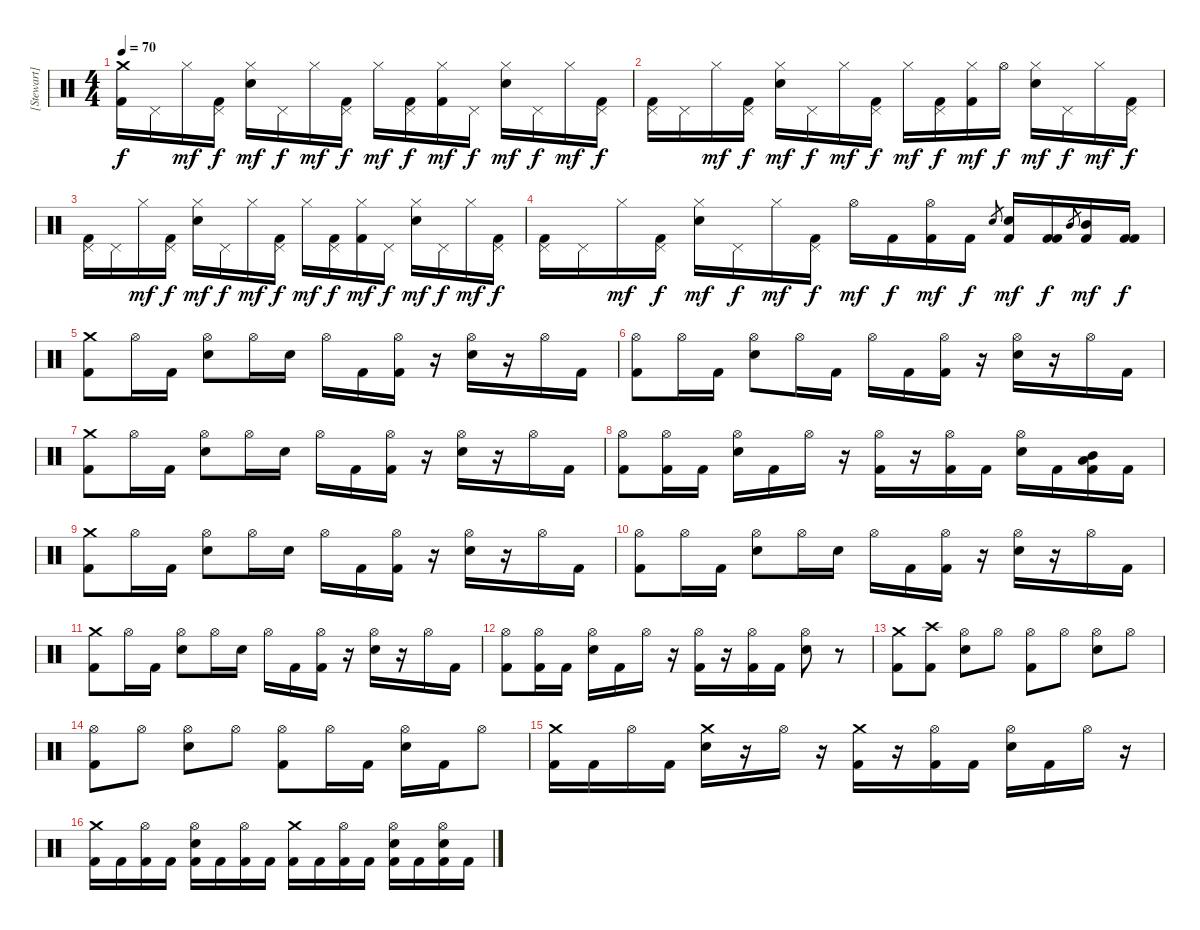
\track ("[Stewart]" "[Stewart]") {instrument percussion}
\staff {score}
\articulation defaults
\ts (4 4)
\tempo 70
\clef neutral
\ks c
("Kick (hit) 2" "Crash medium (hit)").16{dy f} "Pedal Hi-Hat (hit)".16 "Hi-Hat (closed)".16{dy mf} ("Kick (hit) 2" "Pedal Hi-Hat (hit)").16{dy f} ("Electric Snare (hit)" "Hi-Hat (closed)").16{dy mf} "Pedal Hi-Hat (hit)".16{dy f} "Hi-Hat (closed)".16{dy mf} ("Kick (hit) 2" "Pedal Hi-Hat (hit)").16{dy f} "Hi-Hat (closed)".16{dy mf} ("Kick (hit) 2" "Pedal Hi-Hat (hit)").16{dy f} ("Kick (hit) 2" "Hi-Hat (closed)").16{dy mf} "Pedal Hi-Hat (hit)".16{dy f} ("Electric Snare (hit)" "Hi-Hat (closed)").16{dy mf} "Pedal Hi-Hat (hit)".16{dy f} "Hi-Hat (closed)".16{dy mf} ("Kick (hit) 2" "Pedal Hi-Hat (hit)").16{dy f} |
("Kick (hit) 2" "Pedal Hi-Hat (hit)").16 "Pedal Hi-Hat (hit)".16 "Hi-Hat (closed)".16{dy mf} ("Kick (hit) 2" "Pedal Hi-Hat (hit)").16{dy f} ("Electric Snare (hit)" "Hi-Hat (closed)").16{dy mf} "Pedal Hi-Hat (hit)".16{dy f} "Hi-Hat (closed)".16{dy mf} ("Kick (hit) 2" "Pedal Hi-Hat (hit)").16{dy f} "Hi-Hat (closed)".16{dy mf} ("Kick (hit) 2" "Pedal Hi-Hat (hit)").16{dy f} ("Kick (hit) 2" "Hi-Hat (closed)").16{dy mf} "Hi-Hat (open)".16{dy f} ("Electric Snare (hit)" "Hi-Hat (closed)").16{dy mf} "Pedal Hi-Hat (hit)".16{dy f} "Hi-Hat (closed)".16{dy mf} ("Kick (hit) 2" "Pedal Hi-Hat (hit)").16{dy f} |
("Kick (hit) 2" "Pedal Hi-Hat (hit)").16 "Pedal Hi-Hat (hit)".16 "Hi-Hat (closed)".16{dy mf} ("Kick (hit) 2" "Pedal Hi-Hat (hit)").16{dy f} ("Electric Snare (hit)" "Hi-Hat (closed)").16{dy mf} "Pedal Hi-Hat (hit)".16{dy f} "Hi-Hat (closed)".16{dy mf} ("Kick (hit) 2" "Pedal Hi-Hat (hit)").16{dy f} "Hi-Hat (closed)".16{dy mf} ("Kick (hit) 2" "Pedal Hi-Hat (hit)").16{dy f} ("Kick (hit) 2" "Hi-Hat (closed)").16{dy mf} "Pedal Hi-Hat (hit)".16{dy f} ("Electric Snare (hit)" "Hi-Hat (closed)").16{dy mf} "Pedal Hi-Hat (hit)".16{dy f} "Hi-Hat (closed)".16{dy mf} ("Kick (hit) 2" "Pedal Hi-Hat (hit)").16{dy f} |
("Kick (hit) 2" "Pedal Hi-Hat (hit)").16 "Pedal Hi-Hat (hit)".16 "Hi-Hat (closed)".16{dy mf} ("Kick (hit) 2" "Pedal Hi-Hat (hit)").16{dy f} ("Electric Snare (hit)" "Hi-Hat (closed)").16{dy mf} "Pedal Hi-Hat (hit)".16{dy f} "Hi-Hat (closed)".16{dy mf} ("Kick (hit) 2" "Pedal Hi-Hat (hit)").16{dy f} "Hi-Hat (open)".16{dy mf} "Kick (hit) 2".16{dy f} ("Kick (hit) 2" "Hi-Hat (open)").16{dy mf} "Kick (hit) 2".16{dy f} "Electric Snare (hit)".8{gr} ("Electric Snare (hit)" "Kick (hit) 2").16{dy mf} ("Kick (hit) 2" "Kick (hit) 2").16{dy f} "Mid Tom (hit)".8{gr} ("Mid Tom (hit)" "Kick (hit) 2").16{dy mf} ("Kick (hit) 2" "Kick (hit) 2").16{dy f} |
("Kick (hit) 2" "Crash medium (hit)").8 "Hi-Hat (open)".16 "Kick (hit) 2".16 ("Electric Snare (hit)" "Hi-Hat (open)").8 "Hi-Hat (open)".16 "Electric Snare (hit)".16 "Hi-Hat (open)".16 "Kick (hit) 2".16 ("Kick (hit) 2" "Hi-Hat (open)").16 r.16 ("Electric Snare (hit)" "Hi-Hat (open)").16 r.16 "Hi-Hat (open)".16 "Kick (hit) 2".16 |
("Kick (hit) 2" "Hi-Hat (open)").8 "Hi-Hat (open)".16 "Kick (hit) 2".16 ("Electric Snare (hit)" "Hi-Hat (open)").8 "Hi-Hat (open)".16 "Kick (hit) 2".16 "Hi-Hat (open)".16 "Kick (hit) 2".16 ("Kick (hit) 2" "Hi-Hat (open)").16 r.16 ("Electric Snare (hit)" "Hi-Hat (open)").16 r.16 "Hi-Hat (open)".16 "Kick (hit) 2".16 |
("Kick (hit) 2" "Crash medium (hit)").8 "Hi-Hat (open)".16 "Kick (hit) 2".16 ("Electric Snare (hit)" "Hi-Hat (open)").8 "Hi-Hat (open)".16 "Electric Snare (hit)".16 "Hi-Hat (open)".16 "Kick (hit) 2".16 ("Kick (hit) 2" "Hi-Hat (open)").16 r.16 ("Electric Snare (hit)" "Hi-Hat (open)").16 r.16 "Hi-Hat (open)".16 "Kick (hit) 2".16 |
("Kick (hit) 2" "Hi-Hat (open)").8 ("Kick (hit) 2" "Hi-Hat (open)").16 "Kick (hit) 2".16 ("Electric Snare (hit)" "Hi-Hat (open)").16 "Kick (hit) 2".16 "Hi-Hat (open)".16 r.16 ("Kick (hit) 2" "Hi-Hat (open)").16 r.16 ("Kick (hit) 2" "Hi-Hat (open)").16 "Kick (hit) 2".16 ("Electric Snare (hit)" "Hi-Hat (open)").16 "Kick (hit) 2".16 ("Mid Tom (hit)" "Low Tom (hit)" "Kick (hit) 2").16 "Kick (hit) 2".16 |
("Kick (hit) 2" "Crash medium (hit)").8 "Hi-Hat (open)".16 "Kick (hit) 2".16 ("Electric Snare (hit)" "Hi-Hat (open)").8 "Hi-Hat (open)".16 "Electric Snare (hit)".16 "Hi-Hat (open)".16 "Kick (hit) 2".16 ("Kick (hit) 2" "Hi-Hat (open)").16 r.16 ("Electric Snare (hit)" "Hi-Hat (open)").16 r.16 "Hi-Hat (open)".16 "Kick (hit) 2".16 |
("Kick (hit) 2" "Hi-Hat (open)").8 "Hi-Hat (open)".16 "Kick (hit) 2".16 ("Electric Snare (hit)" "Hi-Hat (open)").8 "Hi-Hat (open)".16 "Electric Snare (hit)".16 "Hi-Hat (open)".16 "Kick (hit) 2".16 ("Kick (hit) 2" "Hi-Hat (open)").16 r.16 ("Electric Snare (hit)" "Hi-Hat (open)").16 r.16 "Hi-Hat (open)".16 "Kick (hit) 2".16 |
("Kick (hit) 2" "Crash medium (hit)").8 "Hi-Hat (open)".16 "Kick (hit) 2".16 ("Electric Snare (hit)" "Hi-Hat (open)").8 "Hi-Hat (open)".16 "Electric Snare (hit)".16 "Hi-Hat (open)".16 "Kick (hit) 2".16 ("Kick (hit) 2" "Hi-Hat (open)").16 r.16 ("Electric Snare (hit)" "Hi-Hat (open)").16 r.16 "Hi-Hat (open)".16 "Kick (hit) 2".16 |
("Kick (hit) 2" "Hi-Hat (open)").8 ("Kick (hit) 2" "Hi-Hat (open)").16 "Kick (hit) 2".16 ("Electric Snare (hit)" "Hi-Hat (open)").16 "Kick (hit) 2".16 "Hi-Hat (open)".16 r.16 ("Kick (hit) 2" "Hi-Hat (open)").16 r.16 ("Kick (hit) 2" "Hi-Hat (open)").16 "Kick (hit) 2".16 ("Electric Snare (hit)" "Hi-Hat (open)").8 r.8 |
("Kick (hit) 2" "Crash medium (hit)").8 ("Kick (hit) 2" "Crash high (hit)").8 ("Electric Snare (hit)" "Hi-Hat (open)").8 "Hi-Hat (open)".8 ("Kick (hit) 2" "Hi-Hat (open)").8 "Hi-Hat (open)".8 ("Electric Snare (hit)" "Hi-Hat (open)").8 "Hi-Hat (open)".8 |
("Kick (hit) 2" "Hi-Hat (open)").8 "Hi-Hat (open)".8 ("Electric Snare (hit)" "Hi-Hat (open)").8 "Hi-Hat (open)".8 ("Kick (hit) 2" "Hi-Hat (open)").8 "Hi-Hat (open)".16 "Kick (hit) 2".16 ("Electric Snare (hit)" "Hi-Hat (open)").16 "Kick (hit) 2".16 "Hi-Hat (open)".8 |
("Kick (hit) 2" "Crash medium (hit)").16 "Kick (hit) 2".16 "Hi-Hat (open)".16 "Kick (hit) 2".16 ("Electric Snare (hit)" "Crash medium (hit)").16 r.16 "Hi-Hat (open)".16 r.16 ("Kick (hit) 2" "Crash medium (hit)").16 r.16 ("Kick (hit) 2" "Hi-Hat (open)").16 "Kick (hit) 2".16 ("Electric Snare (hit)" "Hi-Hat (open)").16 "Kick (hit) 2".16 "Hi-Hat (open)".16 r.16 |
("Kick (hit) 2" "Crash medium (hit)").16 "Kick (hit) 2".16 ("Kick (hit) 2" "Hi-Hat (open)").16 "Kick (hit) 2".16 ("Kick (hit) 2" "Electric Snare (hit)" "Hi-Hat (open)").16 "Kick (hit) 2".16 ("Kick (hit) 2" "Hi-Hat (open)").16 "Kick (hit) 2".16 ("Kick (hit) 2" "Crash medium (hit)").16 "Kick (hit) 2".16 ("Kick (hit) 2" "Hi-Hat (open)").16 "Kick (hit) 2".16 ("Kick (hit) 2" "Electric Snare (hit)" "Hi-Hat (open)").16 "Kick (hit) 2".16 ("Kick (hit) 2" "Electric Snare (hit)" "Hi-Hat (open)").16 "Kick (hit) 2".16
